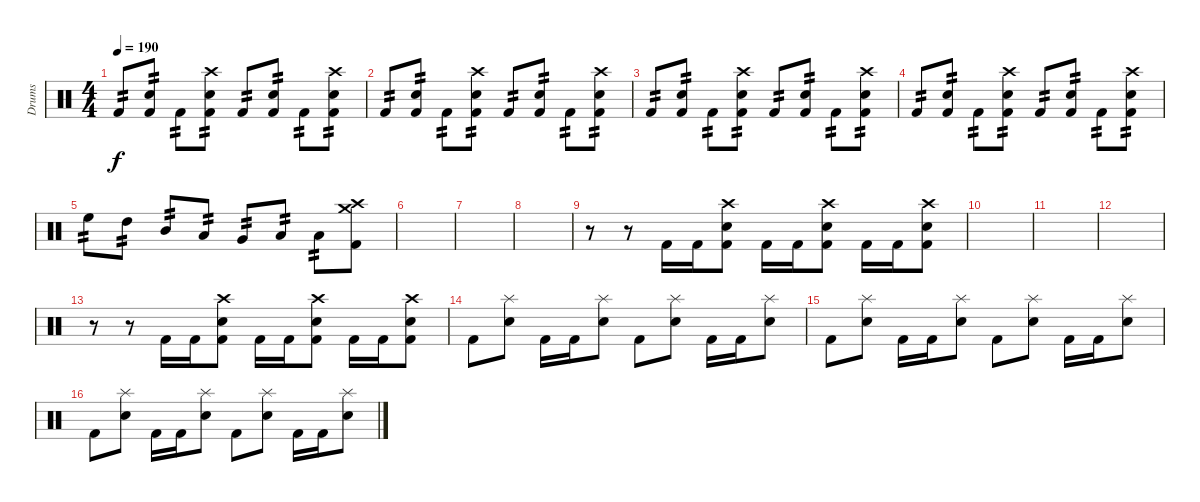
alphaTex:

\track ("Drums" "Drums") {instrument percussion}
\staff {score}
\articulation defaults
\ts (4 4)
\tempo 190
\clef neutral
\ks c "Kick (hit) 2".8{tp 2 dy f}
("Snare (hit) 2" "Kick (hit) 2").8{tp 2} "Kick (hit) 2".8{tp 2} ("Crash high (hit)" "Snare (hit) 2" "Kick (hit) 2").8{tp 2} "Kick (hit) 2".8{tp 2} ("Snare (hit) 2" "Kick (hit) 2").8{tp 2} "Kick (hit) 2".8{tp 2} ("Crash high (hit)" "Snare (hit) 2" "Kick (hit) 2").8{tp 2} |
"Kick (hit) 2".8{tp 2} ("Snare (hit) 2" "Kick (hit) 2").8{tp 2} "Kick (hit) 2".8{tp 2} ("Crash high (hit)" "Snare (hit) 2" "Kick (hit) 2").8{tp 2} "Kick (hit) 2".8{tp 2} ("Snare (hit) 2" "Kick (hit) 2").8{tp 2} "Kick (hit) 2".8{tp 2} ("Crash high (hit)" "Snare (hit) 2" "Kick (hit) 2").8{tp 2} |
"Kick (hit) 2".8{tp 2} ("Snare (hit) 2" "Kick (hit) 2").8{tp 2} "Kick (hit) 2".8{tp 2} ("Crash high (hit)" "Snare (hit) 2" "Kick (hit) 2").8{tp 2} "Kick (hit) 2".8{tp 2} ("Snare (hit) 2" "Kick (hit) 2").8{tp 2} "Kick (hit) 2".8{tp 2} ("Crash high (hit)" "Snare (hit) 2" "Kick (hit) 2").8{tp 2} |
"Kick (hit) 2".8{tp 2} ("Snare (hit) 2" "Kick (hit) 2").8{tp 2} "Kick (hit) 2".8{tp 2} ("Crash high (hit)" "Snare (hit) 2" "Kick (hit) 2").8{tp 2} "Kick (hit) 2".8{tp 2} ("Snare (hit) 2" "Kick (hit) 2").8{tp 2} "Kick (hit) 2".8{tp 2} ("Crash high (hit)" "Snare (hit) 2" "Kick (hit) 2").8{tp 2} |
"High Floor Tom (hit)".8{tp 2} "High Tom (hit)".8{tp 2} "Mid Tom (hit)".8{tp 2} "Low Tom (hit)".8{tp 2} "Very Low Tom (hit)".8{tp 2} "Low Floor Tom (hit)".8{tp 2} "Low Floor Tom (hit)".8{tp 2} ("Crash medium (hit)" "Crash high (hit)" "Kick (hit) 2").8 |
|
|
|
r.8 r.8 "Kick (hit) 2".16 "Kick (hit) 2".16 ("Crash high (hit)" "Snare (hit) 2" "Kick (hit) 2").8 "Kick (hit) 2".16 "Kick (hit) 2".16 ("Crash high (hit)" "Snare (hit) 2" "Kick (hit) 2").8 "Kick (hit) 2".16 "Kick (hit) 2".16 ("Crash high (hit)" "Snare (hit) 2" "Kick (hit) 2").8 |
|
|
|
r.8 r.8 "Kick (hit) 2".16 "Kick (hit) 2".16 ("Crash high (hit)" "Snare (hit) 2" "Kick (hit) 2").8 "Kick (hit) 2".16 "Kick (hit) 2".16 ("Crash high (hit)" "Snare (hit) 2" "Kick (hit) 2").8 "Kick (hit) 2".16 "Kick (hit) 2".16 ("Crash high (hit)" "Snare (hit) 2" "Kick (hit) 2").8 |
"Kick (hit) 2".8 ("Splash (hit)" "Snare (hit) 2").8 "Kick (hit) 2".16 "Kick (hit) 2".16 ("Splash (hit)" "Snare (hit) 2").8 "Kick (hit) 2".8 ("Splash (hit)" "Snare (hit) 2").8 "Kick (hit) 2".16 "Kick (hit) 2".16 ("Splash (hit)" "Snare (hit) 2").8 |
"Kick (hit) 2".8 ("Splash (hit)" "Snare (hit) 2").8 "Kick (hit) 2".16 "Kick (hit) 2".16 ("Splash (hit)" "Snare (hit) 2").8 "Kick (hit) 2".8 ("Splash (hit)" "Snare (hit) 2").8 "Kick (hit) 2".16 "Kick (hit) 2".16 ("Splash (hit)" "Snare (hit) 2").8 |
"Kick (hit) 2".8 ("Splash (hit)" "Snare (hit) 2").8 "Kick (hit) 2".16 "Kick (hit) 2".16 ("Splash (hit)" "Snare (hit) 2").8 "Kick (hit) 2".8 ("Splash (hit)" "Snare (hit) 2").8 "Kick (hit) 2".16 "Kick (hit) 2".16 ("Splash (hit)" "Snare (hit) 2").8
